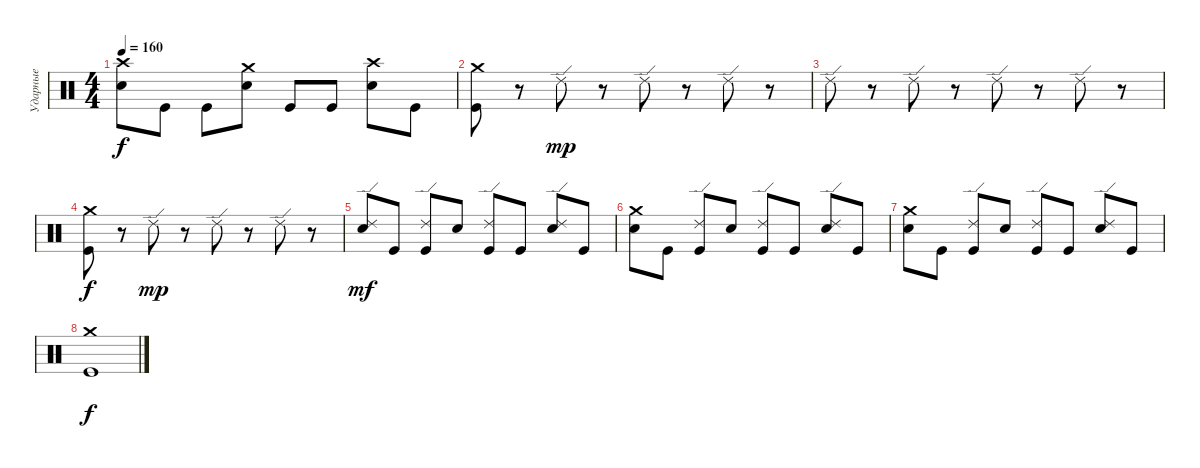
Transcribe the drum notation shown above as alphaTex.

\track ("Ударные" "Ударные") {instrument percussion}
\staff {score}
\articulation defaults
\ts (4 4)
\tempo 160
\clef neutral
\ks c
("Crash high (hit)" "Electric Snare (hit)").8{dy f} "Kick (hit)".8 "Kick (hit)".8 ("Crash medium (hit)" "Electric Snare (hit)").8 "Kick (hit)".8 "Kick (hit)".8 ("Crash high (hit)" "Electric Snare (hit)").8 "Kick (hit)".8 |
("Crash medium (hit)" "Kick (hit)").8 r.8 "Ride (edge) 2".8{dy mp} r.8 "Ride (edge) 2".8 r.8 "Ride (edge) 2".8 r.8 |
"Ride (edge) 2".8 r.8 "Ride (edge) 2".8 r.8 "Ride (edge) 2".8 r.8 "Ride (edge) 2".8 r.8 |
("Crash medium (hit)" "Kick (hit)").8{dy f} r.8 "Ride (edge) 2".8{dy mp} r.8 "Ride (edge) 2".8 r.8 "Ride (edge) 2".8 r.8 |
("Electric Snare (hit)" "Ride (edge) 2").8{dy mf} "Kick (hit)".8 ("Kick (hit)" "Ride (edge) 2").8 "Electric Snare (hit)".8 ("Kick (hit)" "Ride (edge) 2").8 "Kick (hit)".8 ("Electric Snare (hit)" "Ride (edge) 2").8 "Kick (hit)".8 |
("Electric Snare (hit)" "Crash medium (hit)").8 "Kick (hit)".8 ("Kick (hit)" "Ride (edge) 2").8 "Electric Snare (hit)".8 ("Kick (hit)" "Ride (edge) 2").8 "Kick (hit)".8 ("Electric Snare (hit)" "Ride (edge) 2").8 "Kick (hit)".8 |
("Electric Snare (hit)" "Crash medium (hit)").8 "Kick (hit)".8 ("Kick (hit)" "Ride (edge) 2").8 "Electric Snare (hit)".8 ("Kick (hit)" "Ride (edge) 2").8 "Kick (hit)".8 ("Electric Snare (hit)" "Ride (edge) 2").8 "Kick (hit)".8 |
("Crash medium (hit)" "Kick (hit)").1{dy f}
